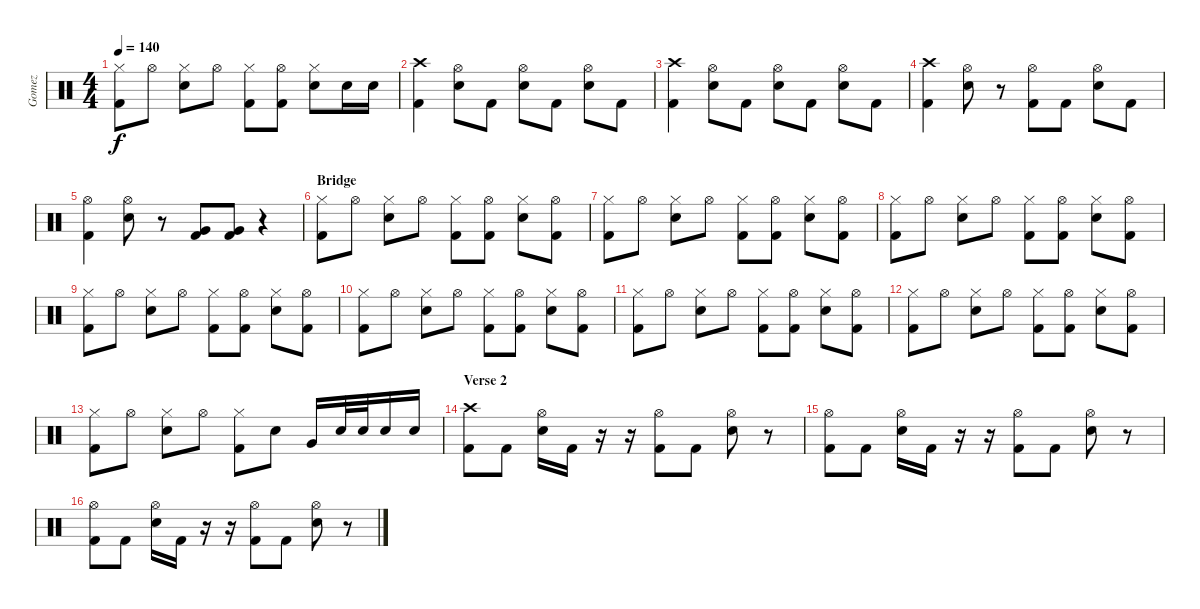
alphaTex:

\track ("Gomez" "Gomez") {instrument percussion}
\staff {score}
\articulation defaults
\ts (4 4)
\tempo 140
\clef neutral
\ks c
("Hi-Hat (closed)" "Kick (hit) 2").8{dy f} "Hi-Hat (open)".8 ("Hi-Hat (closed)" "Electric Snare (hit)").8 "Hi-Hat (open)".8 ("Hi-Hat (closed)" "Kick (hit) 2").8 ("Hi-Hat (open)" "Kick (hit) 2").8 ("Hi-Hat (closed)" "Electric Snare (hit)").8 "Electric Snare (hit)".16 "Electric Snare (hit)".16 |
("Crash high (hit)" "Kick (hit) 2").4{volume 16} ("Hi-Hat (open)" "Electric Snare (hit)").8 "Kick (hit) 2".8 ("Hi-Hat (open)" "Electric Snare (hit)").8 "Kick (hit) 2".8 ("Hi-Hat (open)" "Electric Snare (hit)").8 "Kick (hit) 2".8 |
("Crash high (hit)" "Kick (hit) 2").4 ("Hi-Hat (open)" "Electric Snare (hit)").8 "Kick (hit) 2".8 ("Hi-Hat (open)" "Electric Snare (hit)").8 "Kick (hit) 2".8 ("Hi-Hat (open)" "Electric Snare (hit)").8 "Kick (hit) 2".8 |
("Crash high (hit)" "Kick (hit) 2").4{volume 13} ("Hi-Hat (open)" "Electric Snare (hit)").8 r.8 ("Hi-Hat (open)" "Kick (hit) 2").8 "Kick (hit) 2".8 ("Hi-Hat (open)" "Electric Snare (hit)").8 "Kick (hit) 2".8 |
("Hi-Hat (open)" "Kick (hit) 2").4 ("Hi-Hat (open)" "Electric Snare (hit)").8 r.8 ("Very Low Tom (hit)" "Kick (hit) 2").8{volume 16} ("Very Low Tom (hit)" "Kick (hit) 2").8 r.4 |
\section ("" "Bridge")
("Hi-Hat (closed)" "Kick (hit) 2").8{volume 13} "Hi-Hat (open)".8 ("Hi-Hat (closed)" "Electric Snare (hit)").8 "Hi-Hat (open)".8 ("Hi-Hat (closed)" "Kick (hit) 2").8 ("Hi-Hat (open)" "Kick (hit) 2").8 ("Hi-Hat (closed)" "Electric Snare (hit)").8 ("Hi-Hat (open)" "Kick (hit) 2").8 |
("Hi-Hat (closed)" "Kick (hit) 2").8 "Hi-Hat (open)".8 ("Hi-Hat (closed)" "Electric Snare (hit)").8 "Hi-Hat (open)".8 ("Hi-Hat (closed)" "Kick (hit) 2").8 ("Hi-Hat (open)" "Kick (hit) 2").8 ("Hi-Hat (closed)" "Electric Snare (hit)").8 ("Hi-Hat (open)" "Kick (hit) 2").8 |
("Hi-Hat (closed)" "Kick (hit) 2").8 "Hi-Hat (open)".8 ("Hi-Hat (closed)" "Electric Snare (hit)").8 "Hi-Hat (open)".8 ("Hi-Hat (closed)" "Kick (hit) 2").8 ("Hi-Hat (open)" "Kick (hit) 2").8 ("Hi-Hat (closed)" "Electric Snare (hit)").8 ("Hi-Hat (open)" "Kick (hit) 2").8 |
("Hi-Hat (closed)" "Kick (hit) 2").8 "Hi-Hat (open)".8 ("Hi-Hat (closed)" "Electric Snare (hit)").8 "Hi-Hat (open)".8 ("Hi-Hat (closed)" "Kick (hit) 2").8 ("Hi-Hat (open)" "Kick (hit) 2").8 ("Hi-Hat (closed)" "Electric Snare (hit)").8 ("Hi-Hat (open)" "Kick (hit) 2").8 |
("Hi-Hat (closed)" "Kick (hit) 2").8 "Hi-Hat (open)".8 ("Hi-Hat (closed)" "Electric Snare (hit)").8 "Hi-Hat (open)".8 ("Hi-Hat (closed)" "Kick (hit) 2").8 ("Hi-Hat (open)" "Kick (hit) 2").8 ("Hi-Hat (closed)" "Electric Snare (hit)").8 ("Hi-Hat (open)" "Kick (hit) 2").8 |
("Hi-Hat (closed)" "Kick (hit) 2").8 "Hi-Hat (open)".8 ("Hi-Hat (closed)" "Electric Snare (hit)").8 "Hi-Hat (open)".8 ("Hi-Hat (closed)" "Kick (hit) 2").8 ("Hi-Hat (open)" "Kick (hit) 2").8 ("Hi-Hat (closed)" "Electric Snare (hit)").8 ("Hi-Hat (open)" "Kick (hit) 2").8 |
("Hi-Hat (closed)" "Kick (hit) 2").8 "Hi-Hat (open)".8 ("Hi-Hat (closed)" "Electric Snare (hit)").8 "Hi-Hat (open)".8 ("Hi-Hat (closed)" "Kick (hit) 2").8 ("Hi-Hat (open)" "Kick (hit) 2").8 ("Hi-Hat (closed)" "Electric Snare (hit)").8 ("Hi-Hat (open)" "Kick (hit) 2").8 |
("Hi-Hat (closed)" "Kick (hit) 2").8 "Hi-Hat (open)".8 ("Hi-Hat (closed)" "Electric Snare (hit)").8 "Hi-Hat (open)".8 ("Hi-Hat (closed)" "Kick (hit) 2").8 "Electric Snare (hit)".8 "Very Low Tom (hit)".16 "Electric Snare (hit)".32 "Electric Snare (hit)".32 "Electric Snare (hit)".16 "Electric Snare (hit)".16 |
\section ("" "Verse 2")
("Crash high (hit)" "Kick (hit) 2").8 "Kick (hit) 2".8 ("Hi-Hat (open)" "Electric Snare (hit)").16 "Kick (hit) 2".16 r.16 r.16 ("Hi-Hat (open)" "Kick (hit) 2").8 "Kick (hit) 2".8 ("Hi-Hat (open)" "Electric Snare (hit)").8 r.8 |
("Hi-Hat (open)" "Kick (hit) 2").8 "Kick (hit) 2".8 ("Hi-Hat (open)" "Electric Snare (hit)").16 "Kick (hit) 2".16 r.16 r.16 ("Hi-Hat (open)" "Kick (hit) 2").8 "Kick (hit) 2".8 ("Hi-Hat (open)" "Electric Snare (hit)").8 r.8 |
("Hi-Hat (open)" "Kick (hit) 2").8 "Kick (hit) 2".8 ("Hi-Hat (open)" "Electric Snare (hit)").16 "Kick (hit) 2".16 r.16 r.16 ("Hi-Hat (open)" "Kick (hit) 2").8 "Kick (hit) 2".8 ("Hi-Hat (open)" "Electric Snare (hit)").8 r.8
